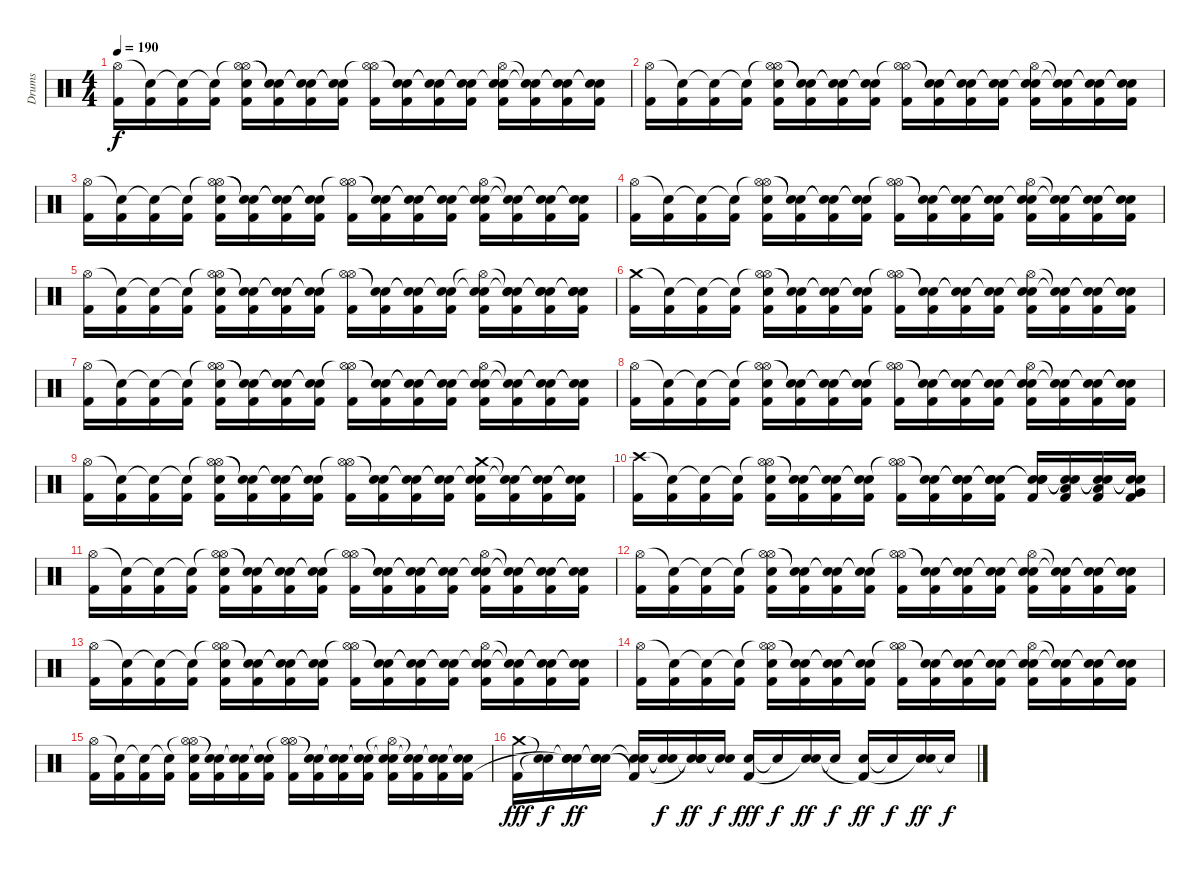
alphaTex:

\track ("Drums" "Drums") {instrument percussion}
\staff {score}
\articulation defaults
\ts (4 4)
\tempo 190
\clef neutral
\ks c
("Hi-Hat (open)" "Kick (hit) 2").16{dy f} ("Snare (hit)"{t} "Kick (hit) 2").16 ("Snare (hit)"{t} "Kick (hit) 2").16 ("Snare (hit)"{t} "Kick (hit) 2").16 ("Hi-Hat (open)"{t} "Hi-Hat (open)" "Electric Snare (hit)" "Kick (hit) 2").16 ("Snare (hit)"{t} "Snare (hit)"{t} "Kick (hit) 2").16 ("Snare (hit)"{t} "Snare (hit)"{t} "Kick (hit) 2").16 ("Snare (hit)"{t} "Snare (hit)"{t} "Kick (hit) 2").16 ("Hi-Hat (open)" "Hi-Hat (open)"{t} "Kick (hit) 2").16 ("Snare (hit)"{t} "Snare (hit)"{t} "Kick (hit) 2").16 ("Snare (hit)"{t} "Snare (hit)"{t} "Kick (hit) 2").16 ("Snare (hit)"{t} "Snare (hit)"{t} "Kick (hit) 2").16 ("Snare (hit)"{t} "Hi-Hat (open)" "Electric Snare (hit)" "Kick (hit) 2").16 ("Snare (hit)"{t} "Snare (hit)"{t} "Kick (hit) 2").16 ("Snare (hit)"{t} "Snare (hit)"{t} "Kick (hit) 2").16 ("Snare (hit)"{t} "Snare (hit)"{t} "Kick (hit) 2").16 |
("Hi-Hat (open)" "Kick (hit) 2").16 ("Snare (hit)"{t} "Kick (hit) 2").16 ("Snare (hit)"{t} "Kick (hit) 2").16 ("Snare (hit)"{t} "Kick (hit) 2").16 ("Hi-Hat (open)"{t} "Hi-Hat (open)" "Electric Snare (hit)" "Kick (hit) 2").16 ("Snare (hit)"{t} "Snare (hit)"{t} "Kick (hit) 2").16 ("Snare (hit)"{t} "Snare (hit)"{t} "Kick (hit) 2").16 ("Snare (hit)"{t} "Snare (hit)"{t} "Kick (hit) 2").16 ("Hi-Hat (open)" "Hi-Hat (open)"{t} "Kick (hit) 2").16 ("Snare (hit)"{t} "Snare (hit)"{t} "Kick (hit) 2").16 ("Snare (hit)"{t} "Snare (hit)"{t} "Kick (hit) 2").16 ("Snare (hit)"{t} "Snare (hit)"{t} "Kick (hit) 2").16 ("Snare (hit)"{t} "Hi-Hat (open)" "Electric Snare (hit)" "Kick (hit) 2").16 ("Snare (hit)"{t} "Snare (hit)"{t} "Kick (hit) 2").16 ("Snare (hit)"{t} "Snare (hit)"{t} "Kick (hit) 2").16 ("Snare (hit)"{t} "Snare (hit)"{t} "Kick (hit) 2").16 |
("Hi-Hat (open)" "Kick (hit) 2").16 ("Snare (hit)"{t} "Kick (hit) 2").16 ("Snare (hit)"{t} "Kick (hit) 2").16 ("Snare (hit)"{t} "Kick (hit) 2").16 ("Hi-Hat (open)"{t} "Hi-Hat (open)" "Electric Snare (hit)" "Kick (hit) 2").16 ("Snare (hit)"{t} "Snare (hit)"{t} "Kick (hit) 2").16 ("Snare (hit)"{t} "Snare (hit)"{t} "Kick (hit) 2").16 ("Snare (hit)"{t} "Snare (hit)"{t} "Kick (hit) 2").16 ("Hi-Hat (open)" "Hi-Hat (open)"{t} "Kick (hit) 2").16 ("Snare (hit)"{t} "Snare (hit)"{t} "Kick (hit) 2").16 ("Snare (hit)"{t} "Snare (hit)"{t} "Kick (hit) 2").16 ("Snare (hit)"{t} "Snare (hit)"{t} "Kick (hit) 2").16 ("Snare (hit)"{t} "Hi-Hat (open)" "Electric Snare (hit)" "Kick (hit) 2").16 ("Snare (hit)"{t} "Snare (hit)"{t} "Kick (hit) 2").16 ("Snare (hit)"{t} "Snare (hit)"{t} "Kick (hit) 2").16 ("Snare (hit)"{t} "Snare (hit)"{t} "Kick (hit) 2").16 |
("Hi-Hat (open)" "Kick (hit) 2").16 ("Snare (hit)"{t} "Kick (hit) 2").16 ("Snare (hit)"{t} "Kick (hit) 2").16 ("Snare (hit)"{t} "Kick (hit) 2").16 ("Hi-Hat (open)"{t} "Hi-Hat (open)" "Electric Snare (hit)" "Kick (hit) 2").16 ("Snare (hit)"{t} "Snare (hit)"{t} "Kick (hit) 2").16 ("Snare (hit)"{t} "Snare (hit)"{t} "Kick (hit) 2").16 ("Snare (hit)"{t} "Snare (hit)"{t} "Kick (hit) 2").16 ("Hi-Hat (open)" "Hi-Hat (open)"{t} "Kick (hit) 2").16 ("Snare (hit)"{t} "Snare (hit)"{t} "Kick (hit) 2").16 ("Snare (hit)"{t} "Snare (hit)"{t} "Kick (hit) 2").16 ("Snare (hit)"{t} "Snare (hit)"{t} "Kick (hit) 2").16 ("Snare (hit)"{t} "Hi-Hat (open)" "Electric Snare (hit)" "Kick (hit) 2").16 ("Snare (hit)"{t} "Snare (hit)"{t} "Kick (hit) 2").16 ("Snare (hit)"{t} "Snare (hit)"{t} "Kick (hit) 2").16 ("Snare (hit)"{t} "Snare (hit)"{t} "Kick (hit) 2").16 |
("Hi-Hat (open)" "Kick (hit) 2").16 ("Snare (hit)"{t} "Kick (hit) 2").16 ("Snare (hit)"{t} "Kick (hit) 2").16 ("Snare (hit)"{t} "Kick (hit) 2").16 ("Hi-Hat (open)"{t} "Hi-Hat (open)" "Electric Snare (hit)" "Kick (hit) 2").16 ("Snare (hit)"{t} "Snare (hit)"{t} "Kick (hit) 2").16 ("Snare (hit)"{t} "Snare (hit)"{t} "Kick (hit) 2").16 ("Snare (hit)"{t} "Snare (hit)"{t} "Kick (hit) 2").16 ("Hi-Hat (open)" "Hi-Hat (open)"{t} "Kick (hit) 2").16 ("Snare (hit)"{t} "Snare (hit)"{t} "Kick (hit) 2").16 ("Snare (hit)"{t} "Snare (hit)"{t} "Kick (hit) 2").16 ("Snare (hit)"{t} "Snare (hit)"{t} "Kick (hit) 2").16 ("Snare (hit)"{t} "Hi-Hat (open)"{t} "Electric Snare (hit)" "Kick (hit) 2").16 ("Snare (hit)"{t} "Snare (hit)"{t} "Electric Snare (hit)" "Kick (hit) 2").16 ("Snare (hit)"{t} "Snare (hit)"{t} "Electric Snare (hit)" "Kick (hit) 2").16 ("Snare (hit)"{t} "Snare (hit)"{t} "Electric Snare (hit)" "Kick (hit) 2").16 |
("Crash medium (hit)" "Kick (hit) 2").16 ("Snare (hit)"{t} "Kick (hit) 2").16 ("Snare (hit)"{t} "Kick (hit) 2").16 ("Snare (hit)"{t} "Kick (hit) 2").16 ("Hi-Hat (open)"{t} "Hi-Hat (open)" "Electric Snare (hit)" "Kick (hit) 2").16 ("Snare (hit)"{t} "Snare (hit)"{t} "Kick (hit) 2").16 ("Snare (hit)"{t} "Snare (hit)"{t} "Kick (hit) 2").16 ("Snare (hit)"{t} "Snare (hit)"{t} "Kick (hit) 2").16 ("Hi-Hat (open)" "Hi-Hat (open)"{t} "Kick (hit) 2").16 ("Snare (hit)"{t} "Snare (hit)"{t} "Kick (hit) 2").16 ("Snare (hit)"{t} "Snare (hit)"{t} "Kick (hit) 2").16 ("Snare (hit)"{t} "Snare (hit)"{t} "Kick (hit) 2").16 ("Snare (hit)"{t} "Hi-Hat (open)" "Electric Snare (hit)" "Kick (hit) 2").16 ("Snare (hit)"{t} "Snare (hit)"{t} "Kick (hit) 2").16 ("Snare (hit)"{t} "Snare (hit)"{t} "Kick (hit) 2").16 ("Snare (hit)"{t} "Snare (hit)"{t} "Kick (hit) 2").16 |
("Hi-Hat (open)" "Kick (hit) 2").16 ("Snare (hit)"{t} "Kick (hit) 2").16 ("Snare (hit)"{t} "Kick (hit) 2").16 ("Snare (hit)"{t} "Kick (hit) 2").16 ("Hi-Hat (open)"{t} "Hi-Hat (open)" "Electric Snare (hit)" "Kick (hit) 2").16 ("Snare (hit)"{t} "Snare (hit)"{t} "Kick (hit) 2").16 ("Snare (hit)"{t} "Snare (hit)"{t} "Kick (hit) 2").16 ("Snare (hit)"{t} "Snare (hit)"{t} "Kick (hit) 2").16 ("Hi-Hat (open)" "Hi-Hat (open)"{t} "Kick (hit) 2").16 ("Snare (hit)"{t} "Snare (hit)"{t} "Kick (hit) 2").16 ("Snare (hit)"{t} "Snare (hit)"{t} "Kick (hit) 2").16 ("Snare (hit)"{t} "Snare (hit)"{t} "Kick (hit) 2").16 ("Snare (hit)"{t} "Hi-Hat (open)" "Electric Snare (hit)" "Kick (hit) 2").16 ("Snare (hit)"{t} "Snare (hit)"{t} "Kick (hit) 2").16 ("Snare (hit)"{t} "Snare (hit)"{t} "Kick (hit) 2").16 ("Snare (hit)"{t} "Snare (hit)"{t} "Kick (hit) 2").16 |
("Hi-Hat (open)" "Kick (hit) 2").16 ("Snare (hit)"{t} "Kick (hit) 2").16 ("Snare (hit)"{t} "Kick (hit) 2").16 ("Snare (hit)"{t} "Kick (hit) 2").16 ("Hi-Hat (open)"{t} "Hi-Hat (open)" "Electric Snare (hit)" "Kick (hit) 2").16 ("Snare (hit)"{t} "Snare (hit)"{t} "Kick (hit) 2").16 ("Snare (hit)"{t} "Snare (hit)"{t} "Kick (hit) 2").16 ("Snare (hit)"{t} "Snare (hit)"{t} "Kick (hit) 2").16 ("Hi-Hat (open)" "Hi-Hat (open)"{t} "Kick (hit) 2").16 ("Snare (hit)"{t} "Snare (hit)"{t} "Kick (hit) 2").16 ("Snare (hit)"{t} "Snare (hit)"{t} "Kick (hit) 2").16 ("Snare (hit)"{t} "Snare (hit)"{t} "Kick (hit) 2").16 ("Snare (hit)"{t} "Hi-Hat (open)" "Electric Snare (hit)" "Kick (hit) 2").16 ("Snare (hit)"{t} "Snare (hit)"{t} "Kick (hit) 2").16 ("Snare (hit)"{t} "Snare (hit)"{t} "Kick (hit) 2").16 ("Snare (hit)"{t} "Snare (hit)"{t} "Kick (hit) 2").16 |
("Hi-Hat (open)" "Kick (hit) 2").16 ("Snare (hit)"{t} "Kick (hit) 2").16 ("Snare (hit)"{t} "Kick (hit) 2").16 ("Snare (hit)"{t} "Kick (hit) 2").16 ("Hi-Hat (open)"{t} "Hi-Hat (open)" "Electric Snare (hit)" "Kick (hit) 2").16 ("Snare (hit)"{t} "Snare (hit)"{t} "Kick (hit) 2").16 ("Snare (hit)"{t} "Snare (hit)"{t} "Kick (hit) 2").16 ("Snare (hit)"{t} "Snare (hit)"{t} "Kick (hit) 2").16 ("Hi-Hat (open)" "Hi-Hat (open)"{t} "Kick (hit) 2").16 ("Snare (hit)"{t} "Snare (hit)"{t} "Kick (hit) 2").16 ("Snare (hit)"{t} "Snare (hit)"{t} "Kick (hit) 2").16 ("Snare (hit)"{t} "Snare (hit)"{t} "Kick (hit) 2").16 ("Crash medium (hit)" "Snare (hit)"{t} "Electric Snare (hit)" "Kick (hit) 2").16 ("Snare (hit)"{t} "Snare (hit)"{t} "Kick (hit) 2").16 ("Snare (hit)"{t} "Snare (hit)"{t} "Kick (hit) 2").16 ("Snare (hit)"{t} "Snare (hit)"{t} "Kick (hit) 2").16 |
("Crash high (hit)" "Kick (hit) 2").16 ("Snare (hit)"{t} "Kick (hit) 2").16 ("Snare (hit)"{t} "Kick (hit) 2").16 ("Snare (hit)"{t} "Kick (hit) 2").16 ("Hi-Hat (open)"{t} "Hi-Hat (open)" "Electric Snare (hit)" "Kick (hit) 2").16 ("Snare (hit)"{t} "Snare (hit)"{t} "Kick (hit) 2").16 ("Snare (hit)"{t} "Snare (hit)"{t} "Kick (hit) 2").16 ("Snare (hit)"{t} "Snare (hit)"{t} "Kick (hit) 2").16 ("Hi-Hat (open)" "Hi-Hat (open)"{t} "Kick (hit) 2").16 ("Snare (hit)"{t} "Snare (hit)"{t} "Kick (hit) 2").16 ("Snare (hit)"{t} "Snare (hit)"{t} "Electric Snare (hit)" "Kick (hit) 2").16 ("Snare (hit)"{t} "Snare (hit)"{t} "Electric Snare (hit)" "Kick (hit) 2").16 ("Snare (hit)"{t} "Snare (hit)"{t} "Electric Snare (hit)" "Kick (hit) 2").16 ("Snare (hit)"{t} "Snare (hit)"{t} "Low Tom (hit)" "Kick (hit) 2").16 ("Snare (hit)"{t} "Snare (hit)"{t} "Low Tom (hit)" "Kick (hit) 2").16 ("Snare (hit)"{t} "Snare (hit)"{t} "Very Low Tom (hit)" "Kick (hit) 2").16 |
("Hi-Hat (open)" "Kick (hit) 2").16 ("Snare (hit)"{t} "Kick (hit) 2").16 ("Snare (hit)"{t} "Kick (hit) 2").16 ("Snare (hit)"{t} "Kick (hit) 2").16 ("Hi-Hat (open)"{t} "Hi-Hat (open)" "Electric Snare (hit)" "Kick (hit) 2").16 ("Snare (hit)"{t} "Snare (hit)"{t} "Kick (hit) 2").16 ("Snare (hit)"{t} "Snare (hit)"{t} "Kick (hit) 2").16 ("Snare (hit)"{t} "Snare (hit)"{t} "Kick (hit) 2").16 ("Hi-Hat (open)" "Hi-Hat (open)"{t} "Kick (hit) 2").16 ("Snare (hit)"{t} "Snare (hit)"{t} "Kick (hit) 2").16 ("Snare (hit)"{t} "Snare (hit)"{t} "Kick (hit) 2").16 ("Snare (hit)"{t} "Snare (hit)"{t} "Kick (hit) 2").16 ("Snare (hit)"{t} "Hi-Hat (open)" "Electric Snare (hit)" "Kick (hit) 2").16 ("Snare (hit)"{t} "Snare (hit)"{t} "Kick (hit) 2").16 ("Snare (hit)"{t} "Snare (hit)"{t} "Kick (hit) 2").16 ("Snare (hit)"{t} "Snare (hit)"{t} "Kick (hit) 2").16 |
("Hi-Hat (open)" "Kick (hit) 2").16 ("Snare (hit)"{t} "Kick (hit) 2").16 ("Snare (hit)"{t} "Kick (hit) 2").16 ("Snare (hit)"{t} "Kick (hit) 2").16 ("Hi-Hat (open)"{t} "Hi-Hat (open)" "Electric Snare (hit)" "Kick (hit) 2").16 ("Snare (hit)"{t} "Snare (hit)"{t} "Kick (hit) 2").16 ("Snare (hit)"{t} "Snare (hit)"{t} "Kick (hit) 2").16 ("Snare (hit)"{t} "Snare (hit)"{t} "Kick (hit) 2").16 ("Hi-Hat (open)" "Hi-Hat (open)"{t} "Kick (hit) 2").16 ("Snare (hit)"{t} "Snare (hit)"{t} "Kick (hit) 2").16 ("Snare (hit)"{t} "Snare (hit)"{t} "Kick (hit) 2").16 ("Snare (hit)"{t} "Snare (hit)"{t} "Kick (hit) 2").16 ("Snare (hit)"{t} "Hi-Hat (open)" "Electric Snare (hit)" "Kick (hit) 2").16 ("Snare (hit)"{t} "Snare (hit)"{t} "Kick (hit) 2").16 ("Snare (hit)"{t} "Snare (hit)"{t} "Kick (hit) 2").16 ("Snare (hit)"{t} "Snare (hit)"{t} "Kick (hit) 2").16 |
("Hi-Hat (open)" "Kick (hit) 2").16 ("Snare (hit)"{t} "Kick (hit) 2").16 ("Snare (hit)"{t} "Kick (hit) 2").16 ("Snare (hit)"{t} "Kick (hit) 2").16 ("Hi-Hat (open)"{t} "Hi-Hat (open)" "Electric Snare (hit)" "Kick (hit) 2").16 ("Snare (hit)"{t} "Snare (hit)"{t} "Kick (hit) 2").16 ("Snare (hit)"{t} "Snare (hit)"{t} "Kick (hit) 2").16 ("Snare (hit)"{t} "Snare (hit)"{t} "Kick (hit) 2").16 ("Hi-Hat (open)" "Hi-Hat (open)"{t} "Kick (hit) 2").16 ("Snare (hit)"{t} "Snare (hit)"{t} "Kick (hit) 2").16 ("Snare (hit)"{t} "Snare (hit)"{t} "Kick (hit) 2").16 ("Snare (hit)"{t} "Snare (hit)"{t} "Kick (hit) 2").16 ("Snare (hit)"{t} "Hi-Hat (open)" "Electric Snare (hit)" "Kick (hit) 2").16 ("Snare (hit)"{t} "Snare (hit)"{t} "Kick (hit) 2").16 ("Snare (hit)"{t} "Snare (hit)"{t} "Kick (hit) 2").16 ("Snare (hit)"{t} "Snare (hit)"{t} "Kick (hit) 2").16 |
("Hi-Hat (open)" "Kick (hit) 2").16 ("Snare (hit)"{t} "Kick (hit) 2").16 ("Snare (hit)"{t} "Kick (hit) 2").16 ("Snare (hit)"{t} "Kick (hit) 2").16 ("Hi-Hat (open)"{t} "Hi-Hat (open)" "Electric Snare (hit)" "Kick (hit) 2").16 ("Snare (hit)"{t} "Snare (hit)"{t} "Kick (hit) 2").16 ("Snare (hit)"{t} "Snare (hit)"{t} "Kick (hit) 2").16 ("Snare (hit)"{t} "Snare (hit)"{t} "Kick (hit) 2").16 ("Hi-Hat (open)" "Hi-Hat (open)"{t} "Kick (hit) 2").16 ("Snare (hit)"{t} "Snare (hit)"{t} "Kick (hit) 2").16 ("Snare (hit)"{t} "Snare (hit)"{t} "Kick (hit) 2").16 ("Snare (hit)"{t} "Snare (hit)"{t} "Kick (hit) 2").16 ("Snare (hit)"{t} "Hi-Hat (open)" "Electric Snare (hit)" "Kick (hit) 2").16 ("Snare (hit)"{t} "Snare (hit)"{t} "Kick (hit) 2").16 ("Snare (hit)"{t} "Snare (hit)"{t} "Kick (hit) 2").16 ("Snare (hit)"{t} "Snare (hit)"{t} "Kick (hit) 2").16 |
("Hi-Hat (open)" "Kick (hit) 2").16 ("Snare (hit)"{t} "Kick (hit) 2").16 ("Snare (hit)"{t} "Kick (hit) 2").16 ("Snare (hit)"{t} "Kick (hit) 2").16 ("Hi-Hat (open)"{t} "Hi-Hat (open)" "Electric Snare (hit)" "Kick (hit) 2").16 ("Snare (hit)"{t} "Snare (hit)"{t} "Kick (hit) 2").16 ("Snare (hit)"{t} "Snare (hit)"{t} "Kick (hit) 2").16 ("Snare (hit)"{t} "Snare (hit)"{t} "Kick (hit) 2").16 ("Hi-Hat (open)" "Hi-Hat (open)"{t} "Kick (hit) 2").16 ("Snare (hit)"{t} "Snare (hit)"{t} "Kick (hit) 2").16 ("Snare (hit)"{t} "Snare (hit)"{t} "Kick (hit) 2").16 ("Snare (hit)"{t} "Snare (hit)"{t} "Kick (hit) 2").16 ("Snare (hit)"{t} "Hi-Hat (open)"{t} "Electric Snare (hit)" "Kick (hit) 2").16 ("Snare (hit)"{t} "Snare (hit)"{t} "Kick (hit) 2").16 ("Snare (hit)"{t} "Snare (hit)"{t} "Kick (hit) 2").16 ("Snare (hit)"{t} "Snare (hit)"{t} "Kick (hit) 2").16 |
("Crash medium (hit)" "Kick (hit) 2").16{dy fff} ("Snare (hit)"{t} "Snare (hit)"{t}).16{dy f} ("Snare (hit)"{t} "Electric Snare (hit)" "Snare (hit)"{t}).16{dy ff} ("Snare (hit)"{t} "Electric Snare (hit)" "Snare (hit)"{t}).16 ("Snare (hit)"{t} "Electric Snare (hit)" "Kick (hit) 2"{t}).16 ("Snare (hit)"{t} "Snare (hit)"{t}).16{dy f} ("Snare (hit)"{t} "Electric Snare (hit)" "Snare (hit)"{t}).16{dy ff} ("Snare (hit)"{t} "Snare (hit)"{t}).16{dy f} ("Electric Snare (hit)" "Kick (hit) 2").16{dy fff} "Snare (hit)"{t}.16{dy f} ("Electric Snare (hit)" "Snare (hit)"{t}).16{dy ff} "Snare (hit)"{t}.16{dy f} ("Electric Snare (hit)" "Kick (hit) 2"{t}).16{dy ff} "Snare (hit)"{t}.16{dy f} ("Electric Snare (hit)" "Snare (hit)"{t}).16{dy ff} "Snare (hit)"{t}.16{dy f}
